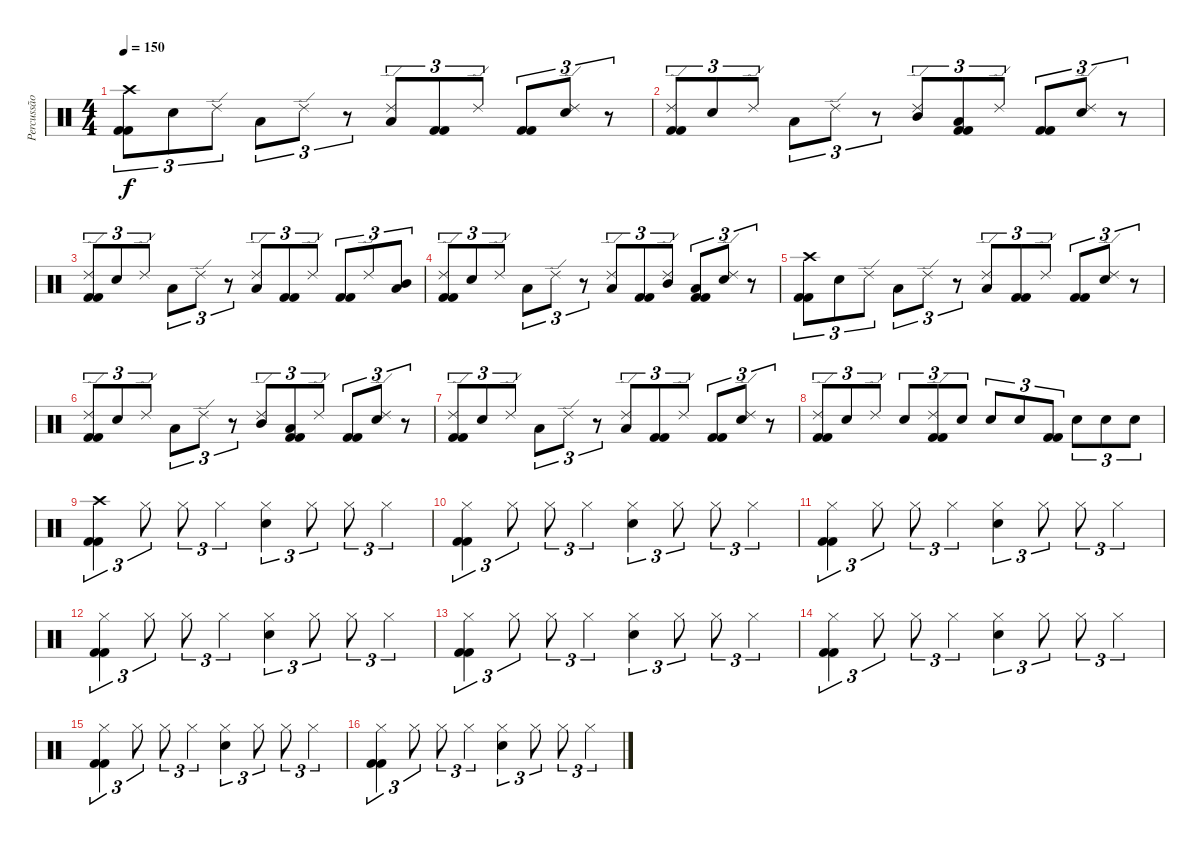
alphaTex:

\track ("Percussão" "Percussão") {instrument percussion}
\staff {score}
\articulation defaults
\ts (4 4)
\tempo 150
\clef neutral
\ks c
("Crash high (hit)" "Kick (hit) 2" "Kick (hit) 2").8{tu (3 2) dy f} "Electric Snare (hit)".8{tu (3 2)} "Ride (edge) 2".8{tu (3 2)} "Low Tom (hit)".8{tu (3 2)} "Ride (edge) 2".8{tu (3 2)} r.8{tu (3 2)} ("Ride (edge) 2" "Low Tom (hit)").8{tu (3 2)} ("Kick (hit) 2" "Kick (hit) 2").8{tu (3 2)} "Ride (edge) 2".8{tu (3 2)} ("Kick (hit) 2" "Kick (hit) 2").8{tu (3 2)} ("Ride (edge) 2" "Electric Snare (hit)").8{tu (3 2)} r.8{tu (3 2)} |
("Ride (edge) 2" "Kick (hit) 2" "Kick (hit) 2").8{tu (3 2)} "Electric Snare (hit)".8{tu (3 2)} "Ride (edge) 2".8{tu (3 2)} "Low Tom (hit)".8{tu (3 2)} "Ride (edge) 2".8{tu (3 2)} r.8{tu (3 2)} ("Ride (edge) 2" "Mid Tom (hit)").8{tu (3 2)} ("Low Tom (hit)" "Kick (hit) 2" "Kick (hit) 2").8{tu (3 2)} "Ride (edge) 2".8{tu (3 2)} ("Kick (hit) 2" "Kick (hit) 2").8{tu (3 2)} ("Ride (edge) 2" "Electric Snare (hit)").8{tu (3 2)} r.8{tu (3 2)} |
("Ride (edge) 2" "Kick (hit) 2" "Kick (hit) 2").8{tu (3 2)} "Electric Snare (hit)".8{tu (3 2)} "Ride (edge) 2".8{tu (3 2)} "Low Tom (hit)".8{tu (3 2)} "Ride (edge) 2".8{tu (3 2)} r.8{tu (3 2)} ("Ride (edge) 2" "Low Tom (hit)").8{tu (3 2)} ("Kick (hit) 2" "Kick (hit) 2").8{tu (3 2)} "Ride (edge) 2".8{tu (3 2)} ("Kick (hit) 2" "Kick (hit) 2").8{tu (3 2)} "Ride (edge) 2".8{tu (3 2)} ("Low Tom (hit)" "Mid Tom (hit)").8{tu (3 2)} |
("Ride (edge) 2" "Kick (hit) 2" "Kick (hit) 2").8{tu (3 2)} "Electric Snare (hit)".8{tu (3 2)} "Ride (edge) 2".8{tu (3 2)} "Low Tom (hit)".8{tu (3 2)} "Ride (edge) 2".8{tu (3 2)} r.8{tu (3 2)} ("Ride (edge) 2" "Low Tom (hit)").8{tu (3 2)} ("Kick (hit) 2" "Kick (hit) 2").8{tu (3 2)} ("Ride (edge) 2" "Mid Tom (hit)").8{tu (3 2)} ("Low Tom (hit)" "Kick (hit) 2" "Kick (hit) 2").8{tu (3 2)} ("Ride (edge) 2" "Electric Snare (hit)").8{tu (3 2)} r.8{tu (3 2)} |
("Crash high (hit)" "Kick (hit) 2" "Kick (hit) 2").8{tu (3 2)} "Electric Snare (hit)".8{tu (3 2)} "Ride (edge) 2".8{tu (3 2)} "Low Tom (hit)".8{tu (3 2)} "Ride (edge) 2".8{tu (3 2)} r.8{tu (3 2)} ("Ride (edge) 2" "Low Tom (hit)").8{tu (3 2)} ("Kick (hit) 2" "Kick (hit) 2").8{tu (3 2)} "Ride (edge) 2".8{tu (3 2)} ("Kick (hit) 2" "Kick (hit) 2").8{tu (3 2)} ("Ride (edge) 2" "Electric Snare (hit)").8{tu (3 2)} r.8{tu (3 2)} |
("Ride (edge) 2" "Kick (hit) 2" "Kick (hit) 2").8{tu (3 2)} "Electric Snare (hit)".8{tu (3 2)} "Ride (edge) 2".8{tu (3 2)} "Low Tom (hit)".8{tu (3 2)} "Ride (edge) 2".8{tu (3 2)} r.8{tu (3 2)} ("Ride (edge) 2" "Mid Tom (hit)").8{tu (3 2)} ("Low Tom (hit)" "Kick (hit) 2" "Kick (hit) 2").8{tu (3 2)} "Ride (edge) 2".8{tu (3 2)} ("Kick (hit) 2" "Kick (hit) 2").8{tu (3 2)} ("Ride (edge) 2" "Electric Snare (hit)").8{tu (3 2)} r.8{tu (3 2)} |
("Ride (edge) 2" "Kick (hit) 2" "Kick (hit) 2").8{tu (3 2)} "Electric Snare (hit)".8{tu (3 2)} "Ride (edge) 2".8{tu (3 2)} "Low Tom (hit)".8{tu (3 2)} "Ride (edge) 2".8{tu (3 2)} r.8{tu (3 2)} ("Ride (edge) 2" "Low Tom (hit)").8{tu (3 2)} ("Kick (hit) 2" "Kick (hit) 2").8{tu (3 2)} "Ride (edge) 2".8{tu (3 2)} ("Kick (hit) 2" "Kick (hit) 2").8{tu (3 2)} ("Ride (edge) 2" "Electric Snare (hit)").8{tu (3 2)} r.8{tu (3 2)} |
("Ride (edge) 2" "Kick (hit) 2" "Kick (hit) 2").8{tu (3 2)} "Electric Snare (hit)".8{tu (3 2)} "Ride (edge) 2".8{tu (3 2)} "Electric Snare (hit)".8{tu (3 2)} ("Ride (edge) 2" "Kick (hit) 2" "Kick (hit) 2").8{tu (3 2)} "Electric Snare (hit)".8{tu (3 2)} "Electric Snare (hit)".8{tu (3 2)} "Electric Snare (hit)".8{tu (3 2)} ("Kick (hit) 2" "Kick (hit) 2").8{tu (3 2)} "Electric Snare (hit)".8{tu (3 2)} "Electric Snare (hit)".8{tu (3 2)} "Electric Snare (hit)".8{tu (3 2)} |
("Crash high (hit)" "Kick (hit) 2" "Kick (hit) 2").4{tu (3 2)} "Hi-Hat (closed)".8{tu (3 2)} "Hi-Hat (closed)".8{tu (3 2)} "Hi-Hat (closed)".4{tu (3 2)} ("Hi-Hat (closed)" "Electric Snare (hit)").4{tu (3 2)} "Hi-Hat (closed)".8{tu (3 2)} "Hi-Hat (closed)".8{tu (3 2)} "Hi-Hat (closed)".4{tu (3 2)} |
("Hi-Hat (closed)" "Kick (hit) 2" "Kick (hit) 2").4{tu (3 2)} "Hi-Hat (closed)".8{tu (3 2)} "Hi-Hat (closed)".8{tu (3 2)} "Hi-Hat (closed)".4{tu (3 2)} ("Hi-Hat (closed)" "Electric Snare (hit)").4{tu (3 2)} "Hi-Hat (closed)".8{tu (3 2)} "Hi-Hat (closed)".8{tu (3 2)} "Hi-Hat (closed)".4{tu (3 2)} |
("Hi-Hat (closed)" "Kick (hit) 2" "Kick (hit) 2").4{tu (3 2)} "Hi-Hat (closed)".8{tu (3 2)} "Hi-Hat (closed)".8{tu (3 2)} "Hi-Hat (closed)".4{tu (3 2)} ("Hi-Hat (closed)" "Electric Snare (hit)").4{tu (3 2)} "Hi-Hat (closed)".8{tu (3 2)} "Hi-Hat (closed)".8{tu (3 2)} "Hi-Hat (closed)".4{tu (3 2)} |
("Hi-Hat (closed)" "Kick (hit) 2" "Kick (hit) 2").4{tu (3 2)} "Hi-Hat (closed)".8{tu (3 2)} "Hi-Hat (closed)".8{tu (3 2)} "Hi-Hat (closed)".4{tu (3 2)} ("Hi-Hat (closed)" "Electric Snare (hit)").4{tu (3 2)} "Hi-Hat (closed)".8{tu (3 2)} "Hi-Hat (closed)".8{tu (3 2)} "Hi-Hat (closed)".4{tu (3 2)} |
("Hi-Hat (closed)" "Kick (hit) 2" "Kick (hit) 2").4{tu (3 2)} "Hi-Hat (closed)".8{tu (3 2)} "Hi-Hat (closed)".8{tu (3 2)} "Hi-Hat (closed)".4{tu (3 2)} ("Hi-Hat (closed)" "Electric Snare (hit)").4{tu (3 2)} "Hi-Hat (closed)".8{tu (3 2)} "Hi-Hat (closed)".8{tu (3 2)} "Hi-Hat (closed)".4{tu (3 2)} |
("Hi-Hat (closed)" "Kick (hit) 2" "Kick (hit) 2").4{tu (3 2)} "Hi-Hat (closed)".8{tu (3 2)} "Hi-Hat (closed)".8{tu (3 2)} "Hi-Hat (closed)".4{tu (3 2)} ("Hi-Hat (closed)" "Electric Snare (hit)").4{tu (3 2)} "Hi-Hat (closed)".8{tu (3 2)} "Hi-Hat (closed)".8{tu (3 2)} "Hi-Hat (closed)".4{tu (3 2)} |
("Hi-Hat (closed)" "Kick (hit) 2" "Kick (hit) 2").4{tu (3 2)} "Hi-Hat (closed)".8{tu (3 2)} "Hi-Hat (closed)".8{tu (3 2)} "Hi-Hat (closed)".4{tu (3 2)} ("Hi-Hat (closed)" "Electric Snare (hit)").4{tu (3 2)} "Hi-Hat (closed)".8{tu (3 2)} "Hi-Hat (closed)".8{tu (3 2)} "Hi-Hat (closed)".4{tu (3 2)} |
("Hi-Hat (closed)" "Kick (hit) 2" "Kick (hit) 2").4{tu (3 2)} "Hi-Hat (closed)".8{tu (3 2)} "Hi-Hat (closed)".8{tu (3 2)} "Hi-Hat (closed)".4{tu (3 2)} ("Hi-Hat (closed)" "Electric Snare (hit)").4{tu (3 2)} "Hi-Hat (closed)".8{tu (3 2)} "Hi-Hat (closed)".8{tu (3 2)} "Hi-Hat (closed)".4{tu (3 2)}
